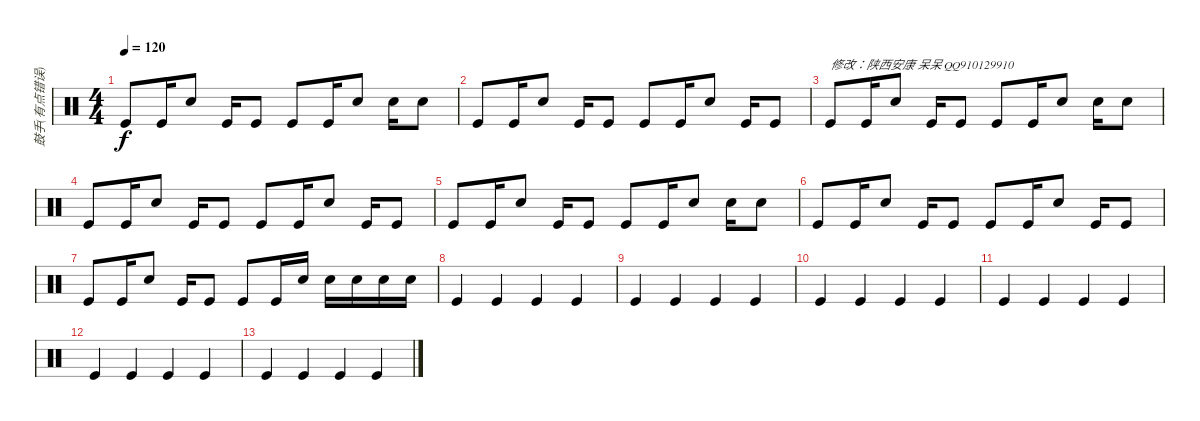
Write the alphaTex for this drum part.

\track ("鼓手(有点错误)" "鼓手(有点错误)") {instrument percussion}
\staff {score}
\articulation defaults
\ts (4 4)
\tempo 120
\clef neutral
\ks c "Kick (hit)".8{dy f} "Kick (hit)".16 "Electric Snare (hit)".8 "Kick (hit)".16 "Kick (hit)".8 "Kick (hit)".8 "Kick (hit)".16 "Electric Snare (hit)".8 "Electric Snare (hit)".16 "Electric Snare (hit)".8
|
"Kick (hit)".8 "Kick (hit)".16 "Electric Snare (hit)".8 "Kick (hit)".16 "Kick (hit)".8 "Kick (hit)".8 "Kick (hit)".16 "Electric Snare (hit)".8 "Kick (hit)".16 "Kick (hit)".8 |
"Kick (hit)".8{txt "修改：陕西安康 呆呆 QQ910129910"} "Kick (hit)".16 "Electric Snare (hit)".8 "Kick (hit)".16 "Kick (hit)".8 "Kick (hit)".8 "Kick (hit)".16 "Electric Snare (hit)".8 "Electric Snare (hit)".16 "Electric Snare (hit)".8 |
"Kick (hit)".8 "Kick (hit)".16 "Electric Snare (hit)".8 "Kick (hit)".16 "Kick (hit)".8 "Kick (hit)".8 "Kick (hit)".16 "Electric Snare (hit)".8 "Kick (hit)".16 "Kick (hit)".8 |
"Kick (hit)".8 "Kick (hit)".16 "Electric Snare (hit)".8 "Kick (hit)".16 "Kick (hit)".8 "Kick (hit)".8 "Kick (hit)".16 "Electric Snare (hit)".8 "Electric Snare (hit)".16 "Electric Snare (hit)".8 |
"Kick (hit)".8 "Kick (hit)".16 "Electric Snare (hit)".8 "Kick (hit)".16 "Kick (hit)".8 "Kick (hit)".8 "Kick (hit)".16 "Electric Snare (hit)".8 "Kick (hit)".16 "Kick (hit)".8 |
"Kick (hit)".8 "Kick (hit)".16 "Electric Snare (hit)".8 "Kick (hit)".16 "Kick (hit)".8 "Kick (hit)".8 "Kick (hit)".16 "Electric Snare (hit)".16 "Electric Snare (hit)".16 "Electric Snare (hit)".16 "Electric Snare (hit)".16 "Electric Snare (hit)".16 |
"Kick (hit)".4 "Kick (hit)".4 "Kick (hit)".4 "Kick (hit)".4 |
"Kick (hit)".4 "Kick (hit)".4 "Kick (hit)".4 "Kick (hit)".4 |
"Kick (hit)".4 "Kick (hit)".4 "Kick (hit)".4 "Kick (hit)".4 |
"Kick (hit)".4 "Kick (hit)".4 "Kick (hit)".4 "Kick (hit)".4 |
"Kick (hit)".4 "Kick (hit)".4 "Kick (hit)".4 "Kick (hit)".4 |
"Kick (hit)".4 "Kick (hit)".4 "Kick (hit)".4 "Kick (hit)".4
